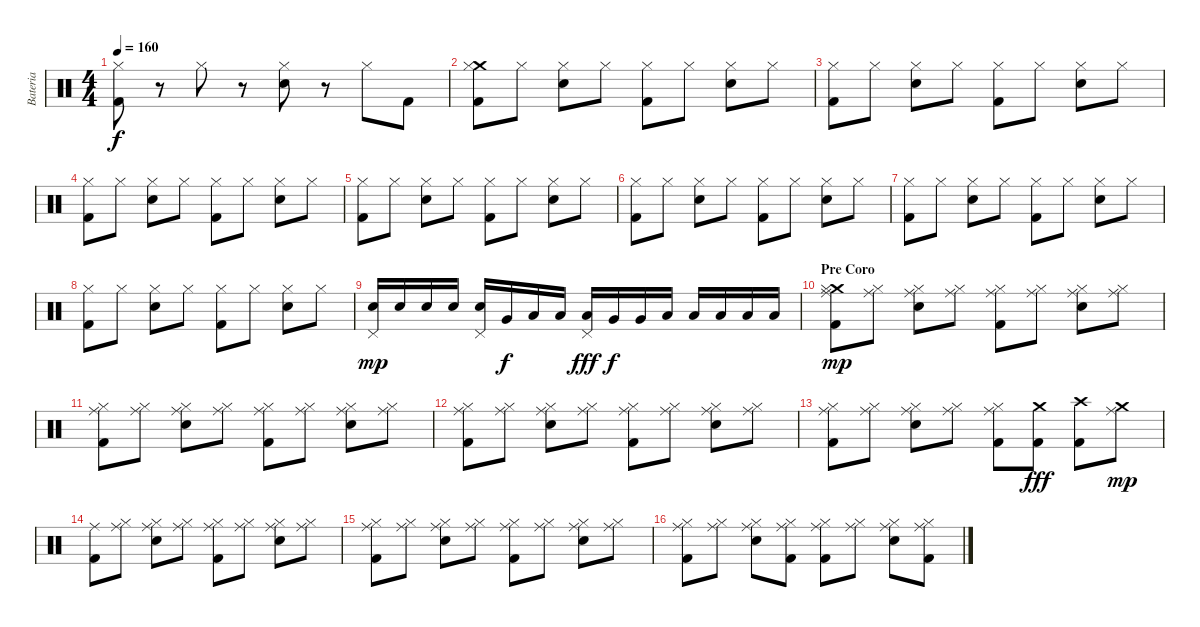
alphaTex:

\track ("Bateria" "Bateria") {instrument percussion}
\staff {score}
\articulation defaults
\ts (4 4)
\tempo 160
\clef neutral
\ks c
("Hi-Hat (closed)" "Kick (hit) 2").8{dy f} r.8 "Hi-Hat (closed)".8 r.8 ("Hi-Hat (closed)" "Electric Snare (hit)").8 r.8 "Hi-Hat (closed)".8 "Kick (hit) 2".8 |
("Crash medium (hit)" "Hi-Hat (closed)" "Kick (hit) 2").8 "Hi-Hat (closed)".8 ("Hi-Hat (closed)" "Electric Snare (hit)").8 "Hi-Hat (closed)".8 ("Hi-Hat (closed)" "Kick (hit) 2").8 "Hi-Hat (closed)".8 ("Hi-Hat (closed)" "Electric Snare (hit)").8 "Hi-Hat (closed)".8 |
("Hi-Hat (closed)" "Kick (hit) 2").8 "Hi-Hat (closed)".8 ("Hi-Hat (closed)" "Electric Snare (hit)").8 "Hi-Hat (closed)".8 ("Hi-Hat (closed)" "Kick (hit) 2").8 "Hi-Hat (closed)".8 ("Hi-Hat (closed)" "Electric Snare (hit)").8 "Hi-Hat (closed)".8 |
("Hi-Hat (closed)" "Kick (hit) 2").8 "Hi-Hat (closed)".8 ("Hi-Hat (closed)" "Electric Snare (hit)").8 "Hi-Hat (closed)".8 ("Hi-Hat (closed)" "Kick (hit) 2").8 "Hi-Hat (closed)".8 ("Hi-Hat (closed)" "Electric Snare (hit)").8 "Hi-Hat (closed)".8 |
("Hi-Hat (closed)" "Kick (hit) 2").8 "Hi-Hat (closed)".8 ("Hi-Hat (closed)" "Electric Snare (hit)").8 "Hi-Hat (closed)".8 ("Hi-Hat (closed)" "Kick (hit) 2").8 "Hi-Hat (closed)".8 ("Hi-Hat (closed)" "Electric Snare (hit)").8 "Hi-Hat (closed)".8 |
("Hi-Hat (closed)" "Kick (hit) 2").8 "Hi-Hat (closed)".8 ("Hi-Hat (closed)" "Electric Snare (hit)").8 "Hi-Hat (closed)".8 ("Hi-Hat (closed)" "Kick (hit) 2").8 "Hi-Hat (closed)".8 ("Hi-Hat (closed)" "Electric Snare (hit)").8 "Hi-Hat (closed)".8 |
("Hi-Hat (closed)" "Kick (hit) 2").8 "Hi-Hat (closed)".8 ("Hi-Hat (closed)" "Electric Snare (hit)").8 "Hi-Hat (closed)".8 ("Hi-Hat (closed)" "Kick (hit) 2").8 "Hi-Hat (closed)".8 ("Hi-Hat (closed)" "Electric Snare (hit)").8 "Hi-Hat (closed)".8 |
("Hi-Hat (closed)" "Kick (hit) 2").8 "Hi-Hat (closed)".8 ("Hi-Hat (closed)" "Electric Snare (hit)").8 "Hi-Hat (closed)".8 ("Hi-Hat (closed)" "Kick (hit) 2").8 "Hi-Hat (closed)".8 ("Hi-Hat (closed)" "Electric Snare (hit)").8 "Hi-Hat (closed)".8 |
("Pedal Hi-Hat (hit)" "Electric Snare (hit)").16{dy mp} "Electric Snare (hit)".16 "Electric Snare (hit)".16 "Electric Snare (hit)".16 ("Pedal Hi-Hat (hit)" "Electric Snare (hit)").16 "Very Low Tom (hit)".16{dy f} "Low Tom (hit)".16 "Low Tom (hit)".16 ("Pedal Hi-Hat (hit)" "Low Tom (hit)").16{dy fff} "Very Low Tom (hit)".16{dy f} "Very Low Tom (hit)".16 "Low Floor Tom (hit)".16 "Low Floor Tom (hit)".16 "Low Floor Tom (hit)".16 "Low Floor Tom (hit)".16 "Low Floor Tom (hit)".16 |
\section ("" "Pre Coro")
("Crash medium (hit)" "Hi-Hat (closed)" "Kick (hit) 2" "Ride (middle)").8{dy mp} ("Hi-Hat (closed)" "Ride (middle)").8 ("Hi-Hat (closed)" "Electric Snare (hit)" "Ride (middle)").8 ("Hi-Hat (closed)" "Ride (middle)").8 ("Hi-Hat (closed)" "Kick (hit) 2" "Ride (middle)").8 ("Hi-Hat (closed)" "Ride (middle)").8 ("Hi-Hat (closed)" "Electric Snare (hit)" "Ride (middle)").8 ("Hi-Hat (closed)" "Ride (middle)").8 |
("Hi-Hat (closed)" "Kick (hit) 2" "Ride (middle)").8 ("Hi-Hat (closed)" "Ride (middle)").8 ("Hi-Hat (closed)" "Electric Snare (hit)" "Ride (middle)").8 ("Hi-Hat (closed)" "Ride (middle)").8 ("Hi-Hat (closed)" "Kick (hit) 2" "Ride (middle)").8 ("Hi-Hat (closed)" "Ride (middle)").8 ("Hi-Hat (closed)" "Electric Snare (hit)" "Ride (middle)").8 ("Hi-Hat (closed)" "Ride (middle)").8 |
("Hi-Hat (closed)" "Kick (hit) 2" "Ride (middle)").8 ("Hi-Hat (closed)" "Ride (middle)").8 ("Hi-Hat (closed)" "Electric Snare (hit)" "Ride (middle)").8 ("Hi-Hat (closed)" "Ride (middle)").8 ("Hi-Hat (closed)" "Kick (hit) 2" "Ride (middle)").8 ("Hi-Hat (closed)" "Ride (middle)").8 ("Hi-Hat (closed)" "Electric Snare (hit)" "Ride (middle)").8 ("Hi-Hat (closed)" "Ride (middle)").8 |
("Hi-Hat (closed)" "Kick (hit) 2" "Ride (middle)").8 ("Hi-Hat (closed)" "Ride (middle)").8 ("Hi-Hat (closed)" "Electric Snare (hit)" "Ride (middle)").8 ("Hi-Hat (closed)" "Ride (middle)").8 ("Hi-Hat (closed)" "Kick (hit) 2" "Ride (middle)").8 ("Crash medium (hit)" "Kick (hit) 2").8{dy fff} ("Crash high (hit)" "Kick (hit) 2").8 ("Crash medium (hit)" "Ride (middle)").8{dy mp} |
("Kick (hit) 2" "Ride (middle)").8 ("Hi-Hat (closed)" "Ride (middle)").8 ("Hi-Hat (closed)" "Electric Snare (hit)" "Ride (middle)").8 ("Hi-Hat (closed)" "Ride (middle)").8 ("Hi-Hat (closed)" "Kick (hit) 2" "Ride (middle)").8 ("Hi-Hat (closed)" "Ride (middle)").8 ("Hi-Hat (closed)" "Electric Snare (hit)" "Ride (middle)").8 ("Hi-Hat (closed)" "Ride (middle)").8 |
("Hi-Hat (closed)" "Kick (hit) 2" "Ride (middle)").8 ("Hi-Hat (closed)" "Ride (middle)").8 ("Hi-Hat (closed)" "Electric Snare (hit)" "Ride (middle)").8 ("Hi-Hat (closed)" "Ride (middle)").8 ("Hi-Hat (closed)" "Kick (hit) 2" "Ride (middle)").8 ("Hi-Hat (closed)" "Ride (middle)").8 ("Hi-Hat (closed)" "Electric Snare (hit)" "Ride (middle)").8 ("Hi-Hat (closed)" "Ride (middle)").8 |
("Hi-Hat (closed)" "Kick (hit) 2" "Ride (middle)").8 ("Hi-Hat (closed)" "Ride (middle)").8 ("Hi-Hat (closed)" "Electric Snare (hit)" "Ride (middle)").8 ("Hi-Hat (closed)" "Kick (hit) 2" "Ride (middle)").8 ("Hi-Hat (closed)" "Kick (hit) 2" "Ride (middle)").8 ("Hi-Hat (closed)" "Ride (middle)").8 ("Hi-Hat (closed)" "Electric Snare (hit)" "Ride (middle)").8 ("Hi-Hat (closed)" "Kick (hit) 2" "Ride (middle)").8
